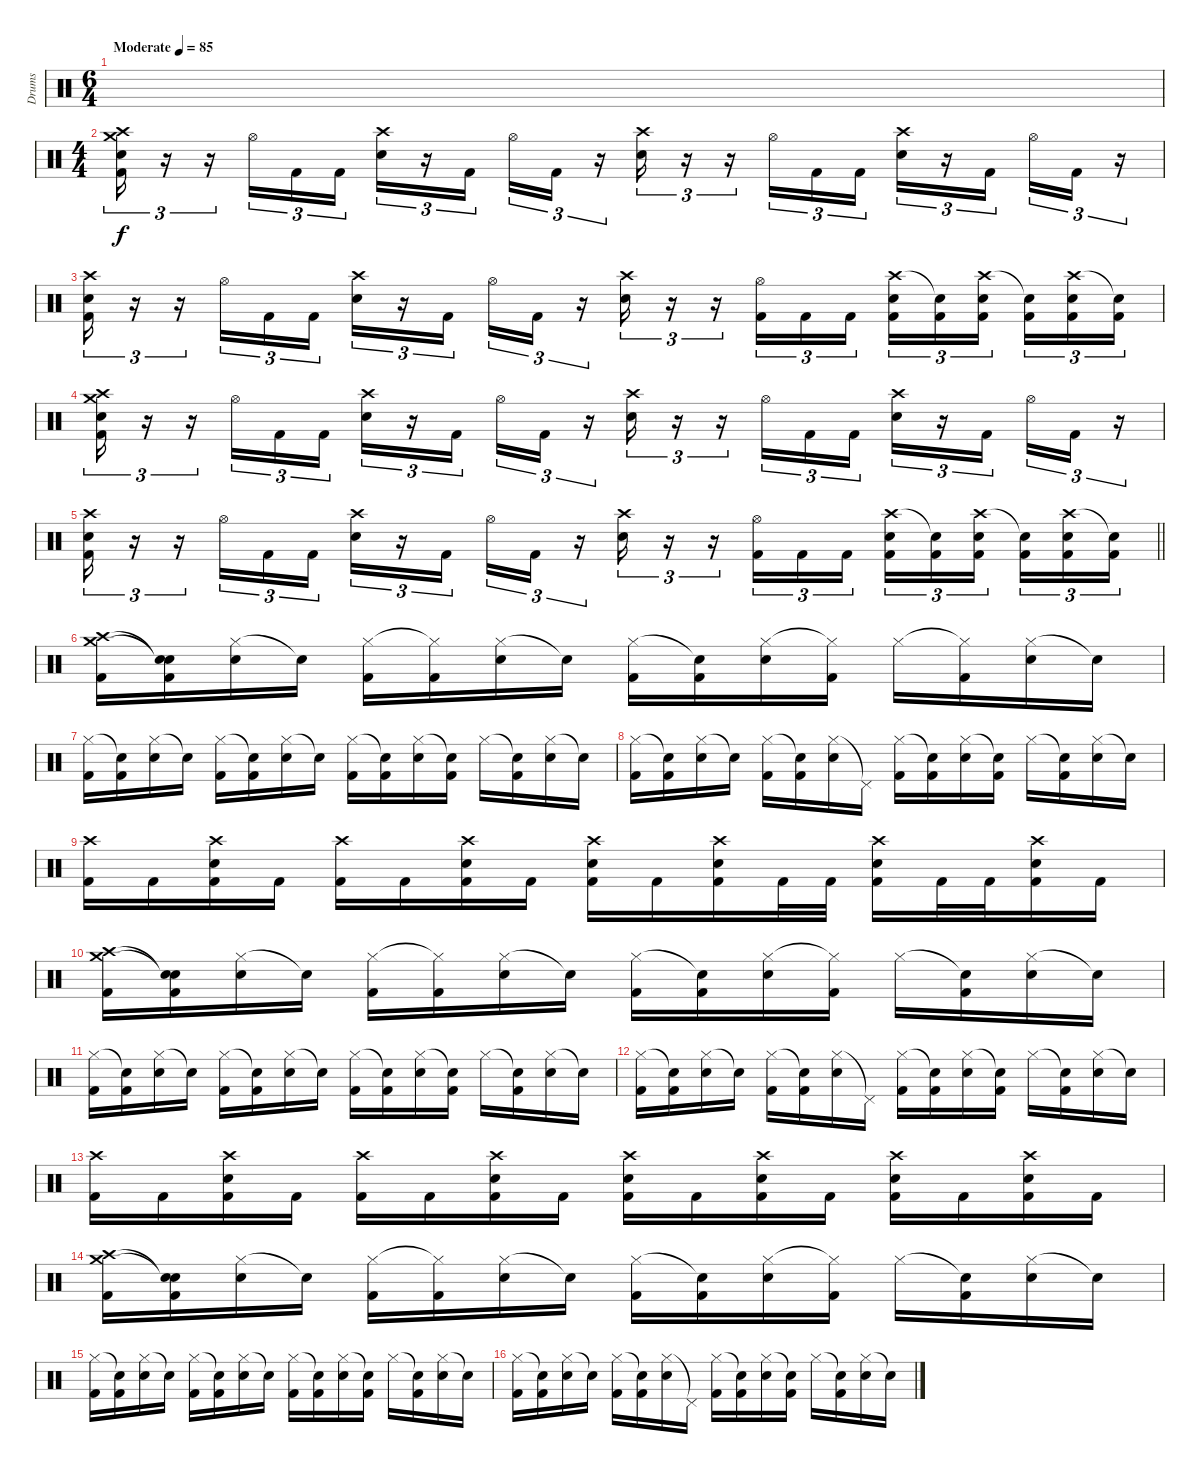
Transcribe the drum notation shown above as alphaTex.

\track ("Drums" "Drums") {instrument percussion}
\staff {score}
\articulation defaults
\ts (6 4)
\tempo (85 "Moderate")
\clef neutral
\ks c
|
\ts (4 4)
("Crash medium (hit)" "Crash high (hit)" "Electric Snare (hit)" "Kick (hit) 2").16{tu (3 2)} r.16{tu (3 2)} r.16{tu (3 2)} "Hi-Hat (open)".16{tu (3 2)} "Kick (hit) 2".16{tu (3 2)} "Kick (hit) 2".16{tu (3 2)} ("Crash high (hit)" "Electric Snare (hit)").16{tu (3 2)} r.16{tu (3 2)} "Kick (hit) 2".16{tu (3 2) beam splitsecondary} "Hi-Hat (open)".16{tu (3 2)} "Kick (hit) 2".16{tu (3 2)} r.16{tu (3 2)} ("Crash high (hit)" "Electric Snare (hit)").16{tu (3 2)} r.16{tu (3 2)} r.16{tu (3 2)} "Hi-Hat (open)".16{tu (3 2)} "Kick (hit) 2".16{tu (3 2)} "Kick (hit) 2".16{tu (3 2)} ("Crash high (hit)" "Electric Snare (hit)").16{tu (3 2)} r.16{tu (3 2)} "Kick (hit) 2".16{tu (3 2) beam splitsecondary} "Hi-Hat (open)".16{tu (3 2)} "Kick (hit) 2".16{tu (3 2)} r.16{tu (3 2)} |
("Crash high (hit)" "Electric Snare (hit)" "Kick (hit) 2").16{tu (3 2)} r.16{tu (3 2)} r.16{tu (3 2)} "Hi-Hat (open)".16{tu (3 2)} "Kick (hit) 2".16{tu (3 2)} "Kick (hit) 2".16{tu (3 2)} ("Crash high (hit)" "Electric Snare (hit)").16{tu (3 2)} r.16{tu (3 2)} "Kick (hit) 2".16{tu (3 2) beam splitsecondary} "Hi-Hat (open)".16{tu (3 2)} "Kick (hit) 2".16{tu (3 2)} r.16{tu (3 2)} ("Crash high (hit)" "Electric Snare (hit)").16{tu (3 2)} r.16{tu (3 2)} r.16{tu (3 2)} ("Hi-Hat (open)" "Kick (hit) 2").16{tu (3 2)} "Kick (hit) 2".16{tu (3 2)} "Kick (hit) 2".16{tu (3 2)} ("Crash high (hit)" "Electric Snare (hit)" "Kick (hit) 2").16{tu (3 2)} ("Snare (hit)"{t} "Kick (hit) 2").16{tu (3 2)} ("Crash high (hit)" "Electric Snare (hit)" "Kick (hit) 2").16{tu (3 2) beam splitsecondary} ("Snare (hit)"{t} "Kick (hit) 2").16{tu (3 2)} ("Crash high (hit)" "Electric Snare (hit)" "Kick (hit) 2").16{tu (3 2)} ("Snare (hit)"{t} "Kick (hit) 2").16{tu (3 2)} |
("Crash medium (hit)" "Crash high (hit)" "Electric Snare (hit)" "Kick (hit) 2").16{tu (3 2)} r.16{tu (3 2)} r.16{tu (3 2)} "Hi-Hat (open)".16{tu (3 2)} "Kick (hit) 2".16{tu (3 2)} "Kick (hit) 2".16{tu (3 2)} ("Crash high (hit)" "Electric Snare (hit)").16{tu (3 2)} r.16{tu (3 2)} "Kick (hit) 2".16{tu (3 2) beam splitsecondary} "Hi-Hat (open)".16{tu (3 2)} "Kick (hit) 2".16{tu (3 2)} r.16{tu (3 2)} ("Crash high (hit)" "Electric Snare (hit)").16{tu (3 2)} r.16{tu (3 2)} r.16{tu (3 2)} "Hi-Hat (open)".16{tu (3 2)} "Kick (hit) 2".16{tu (3 2)} "Kick (hit) 2".16{tu (3 2)} ("Crash high (hit)" "Electric Snare (hit)").16{tu (3 2)} r.16{tu (3 2)} "Kick (hit) 2".16{tu (3 2) beam splitsecondary} "Hi-Hat (open)".16{tu (3 2)} "Kick (hit) 2".16{tu (3 2)} r.16{tu (3 2)} |
\barLineRight lightlight
("Crash high (hit)" "Electric Snare (hit)" "Kick (hit) 2").16{tu (3 2)} r.16{tu (3 2)} r.16{tu (3 2)} "Hi-Hat (open)".16{tu (3 2)} "Kick (hit) 2".16{tu (3 2)} "Kick (hit) 2".16{tu (3 2)} ("Crash high (hit)" "Electric Snare (hit)").16{tu (3 2)} r.16{tu (3 2)} "Kick (hit) 2".16{tu (3 2) beam splitsecondary} "Hi-Hat (open)".16{tu (3 2)} "Kick (hit) 2".16{tu (3 2)} r.16{tu (3 2)} ("Crash high (hit)" "Electric Snare (hit)").16{tu (3 2)} r.16{tu (3 2)} r.16{tu (3 2)} ("Hi-Hat (open)" "Kick (hit) 2").16{tu (3 2)} "Kick (hit) 2".16{tu (3 2)} "Kick (hit) 2".16{tu (3 2)} ("Crash high (hit)" "Electric Snare (hit)" "Kick (hit) 2").16{tu (3 2)} ("Snare (hit)"{t} "Kick (hit) 2").16{tu (3 2)} ("Crash high (hit)" "Electric Snare (hit)" "Kick (hit) 2").16{tu (3 2) beam splitsecondary} ("Snare (hit)"{t} "Kick (hit) 2").16{tu (3 2)} ("Crash high (hit)" "Electric Snare (hit)" "Kick (hit) 2").16{tu (3 2)} ("Snare (hit)"{t} "Kick (hit) 2").16{tu (3 2)} |
("Crash medium (hit)" "Crash high (hit)" "Kick (hit) 2").16 ("Snare (hit)"{t} "Snare (hit)"{t} "Kick (hit) 2").16 ("Hi-Hat (closed)" "Electric Snare (hit)").16 "Snare (hit)"{t}.16 ("Hi-Hat (closed)" "Kick (hit) 2").16 ("Hi-Hat (closed)"{t} "Kick (hit) 2").16 ("Hi-Hat (closed)" "Electric Snare (hit)").16 "Snare (hit)"{t}.16 ("Hi-Hat (closed)" "Kick (hit) 2").16 ("Snare (hit)"{t} "Kick (hit) 2").16 ("Hi-Hat (closed)" "Electric Snare (hit)").16 ("Hi-Hat (closed)"{t} "Kick (hit) 2").16 "Hi-Hat (closed)".16 ("Hi-Hat (closed)"{t} "Kick (hit) 2").16 ("Hi-Hat (closed)" "Electric Snare (hit)").16 "Snare (hit)"{t}.16 |
("Hi-Hat (closed)" "Kick (hit) 2").16 ("Snare (hit)"{t} "Kick (hit) 2").16 ("Hi-Hat (closed)" "Electric Snare (hit)").16 "Snare (hit)"{t}.16 ("Hi-Hat (closed)" "Kick (hit) 2").16 ("Snare (hit)"{t} "Kick (hit) 2").16 ("Hi-Hat (closed)" "Electric Snare (hit)").16 "Snare (hit)"{t}.16 ("Hi-Hat (closed)" "Kick (hit) 2").16 ("Snare (hit)"{t} "Kick (hit) 2").16 ("Hi-Hat (closed)" "Electric Snare (hit)").16 ("Snare (hit)"{t} "Kick (hit) 2").16 "Hi-Hat (closed)".16 ("Snare (hit)"{t} "Kick (hit) 2").16 ("Hi-Hat (closed)" "Electric Snare (hit)").16 "Snare (hit)"{t}.16 |
("Hi-Hat (closed)" "Kick (hit) 2").16 ("Snare (hit)"{t} "Kick (hit) 2").16 ("Hi-Hat (closed)" "Electric Snare (hit)").16 "Snare (hit)"{t}.16 ("Hi-Hat (closed)" "Kick (hit) 2").16 ("Snare (hit)"{t} "Kick (hit) 2").16 ("Hi-Hat (closed)" "Electric Snare (hit)").16 "Pedal Hi-Hat (hit)"{t}.16 ("Hi-Hat (closed)" "Kick (hit) 2").16 ("Snare (hit)"{t} "Kick (hit) 2").16 ("Hi-Hat (closed)" "Electric Snare (hit)").16 ("Snare (hit)"{t} "Kick (hit) 2").16 "Hi-Hat (closed)".16 ("Snare (hit)"{t} "Kick (hit) 2").16 ("Hi-Hat (closed)" "Electric Snare (hit)").16 "Snare (hit)"{t}.16 |
("Crash high (hit)" "Kick (hit) 2").16 "Kick (hit) 2".16 ("Crash high (hit)" "Electric Snare (hit)" "Kick (hit) 2").16 "Kick (hit) 2".16 ("Crash high (hit)" "Kick (hit) 2").16 "Kick (hit) 2".16 ("Crash high (hit)" "Electric Snare (hit)" "Kick (hit) 2").16 "Kick (hit) 2".16 ("Crash high (hit)" "Electric Snare (hit)" "Kick (hit) 2").16 "Kick (hit) 2".16 ("Crash high (hit)" "Electric Snare (hit)" "Kick (hit) 2").16 "Kick (hit) 2".32 "Kick (hit) 2".32 ("Crash high (hit)" "Electric Snare (hit)" "Kick (hit) 2").16 "Kick (hit) 2".32 "Kick (hit) 2".32 ("Crash high (hit)" "Electric Snare (hit)" "Kick (hit) 2").16 "Kick (hit) 2".16 |
("Crash medium (hit)" "Crash high (hit)" "Kick (hit) 2").16 ("Snare (hit)"{t} "Snare (hit)"{t} "Kick (hit) 2").16 ("Hi-Hat (closed)" "Electric Snare (hit)").16 "Snare (hit)"{t}.16 ("Hi-Hat (closed)" "Kick (hit) 2").16 ("Hi-Hat (closed)"{t} "Kick (hit) 2").16 ("Hi-Hat (closed)" "Electric Snare (hit)").16 "Snare (hit)"{t}.16 ("Hi-Hat (closed)" "Kick (hit) 2").16 ("Snare (hit)"{t} "Kick (hit) 2").16 ("Hi-Hat (closed)" "Electric Snare (hit)").16 ("Hi-Hat (closed)"{t} "Kick (hit) 2").16 "Hi-Hat (closed)".16 ("Snare (hit)"{t} "Kick (hit) 2").16 ("Hi-Hat (closed)" "Electric Snare (hit)").16 "Snare (hit)"{t}.16 |
("Hi-Hat (closed)" "Kick (hit) 2").16 ("Snare (hit)"{t} "Kick (hit) 2").16 ("Hi-Hat (closed)" "Electric Snare (hit)").16 "Snare (hit)"{t}.16 ("Hi-Hat (closed)" "Kick (hit) 2").16 ("Snare (hit)"{t} "Kick (hit) 2").16 ("Hi-Hat (closed)" "Electric Snare (hit)").16 "Snare (hit)"{t}.16 ("Hi-Hat (closed)" "Kick (hit) 2").16 ("Snare (hit)"{t} "Kick (hit) 2").16 ("Hi-Hat (closed)" "Electric Snare (hit)").16 ("Snare (hit)"{t} "Kick (hit) 2").16 "Hi-Hat (closed)".16 ("Snare (hit)"{t} "Kick (hit) 2").16 ("Hi-Hat (closed)" "Electric Snare (hit)").16 "Snare (hit)"{t}.16 |
("Hi-Hat (closed)" "Kick (hit) 2").16 ("Snare (hit)"{t} "Kick (hit) 2").16 ("Hi-Hat (closed)" "Electric Snare (hit)").16 "Snare (hit)"{t}.16 ("Hi-Hat (closed)" "Kick (hit) 2").16 ("Snare (hit)"{t} "Kick (hit) 2").16 ("Hi-Hat (closed)" "Electric Snare (hit)").16 "Pedal Hi-Hat (hit)"{t}.16 ("Hi-Hat (closed)" "Kick (hit) 2").16 ("Snare (hit)"{t} "Kick (hit) 2").16 ("Hi-Hat (closed)" "Electric Snare (hit)").16 ("Snare (hit)"{t} "Kick (hit) 2").16 "Hi-Hat (closed)".16 ("Snare (hit)"{t} "Kick (hit) 2").16 ("Hi-Hat (closed)" "Electric Snare (hit)").16 "Snare (hit)"{t}.16 |
("Crash high (hit)" "Kick (hit) 2").16 "Kick (hit) 2".16 ("Crash high (hit)" "Electric Snare (hit)" "Kick (hit) 2").16 "Kick (hit) 2".16 ("Crash high (hit)" "Kick (hit) 2").16 "Kick (hit) 2".16 ("Crash high (hit)" "Electric Snare (hit)" "Kick (hit) 2").16 "Kick (hit) 2".16 ("Crash high (hit)" "Electric Snare (hit)" "Kick (hit) 2").16 "Kick (hit) 2".16 ("Crash high (hit)" "Electric Snare (hit)" "Kick (hit) 2").16 "Kick (hit) 2".16 ("Crash high (hit)" "Electric Snare (hit)" "Kick (hit) 2").16 "Kick (hit) 2".16 ("Crash high (hit)" "Electric Snare (hit)" "Kick (hit) 2").16 "Kick (hit) 2".16 |
("Crash medium (hit)" "Crash high (hit)" "Kick (hit) 2").16 ("Snare (hit)"{t} "Snare (hit)"{t} "Kick (hit) 2").16 ("Hi-Hat (closed)" "Electric Snare (hit)").16 "Snare (hit)"{t}.16 ("Hi-Hat (closed)" "Kick (hit) 2").16 ("Hi-Hat (closed)"{t} "Kick (hit) 2").16 ("Hi-Hat (closed)" "Electric Snare (hit)").16 "Snare (hit)"{t}.16 ("Hi-Hat (closed)" "Kick (hit) 2").16 ("Snare (hit)"{t} "Kick (hit) 2").16 ("Hi-Hat (closed)" "Electric Snare (hit)").16 ("Hi-Hat (closed)"{t} "Kick (hit) 2").16 "Hi-Hat (closed)".16 ("Snare (hit)"{t} "Kick (hit) 2").16 ("Hi-Hat (closed)" "Electric Snare (hit)").16 "Snare (hit)"{t}.16 |
("Hi-Hat (closed)" "Kick (hit) 2").16 ("Snare (hit)"{t} "Kick (hit) 2").16 ("Hi-Hat (closed)" "Electric Snare (hit)").16 "Snare (hit)"{t}.16 ("Hi-Hat (closed)" "Kick (hit) 2").16 ("Snare (hit)"{t} "Kick (hit) 2").16 ("Hi-Hat (closed)" "Electric Snare (hit)").16 "Snare (hit)"{t}.16 ("Hi-Hat (closed)" "Kick (hit) 2").16 ("Snare (hit)"{t} "Kick (hit) 2").16 ("Hi-Hat (closed)" "Electric Snare (hit)").16 ("Snare (hit)"{t} "Kick (hit) 2").16 "Hi-Hat (closed)".16 ("Snare (hit)"{t} "Kick (hit) 2").16 ("Hi-Hat (closed)" "Electric Snare (hit)").16 "Snare (hit)"{t}.16 |
("Hi-Hat (closed)" "Kick (hit) 2").16 ("Snare (hit)"{t} "Kick (hit) 2").16 ("Hi-Hat (closed)" "Electric Snare (hit)").16 "Snare (hit)"{t}.16 ("Hi-Hat (closed)" "Kick (hit) 2").16 ("Snare (hit)"{t} "Kick (hit) 2").16 ("Hi-Hat (closed)" "Electric Snare (hit)").16 "Pedal Hi-Hat (hit)"{t}.16 ("Hi-Hat (closed)" "Kick (hit) 2").16 ("Snare (hit)"{t} "Kick (hit) 2").16 ("Hi-Hat (closed)" "Electric Snare (hit)").16 ("Snare (hit)"{t} "Kick (hit) 2").16 "Hi-Hat (closed)".16 ("Snare (hit)"{t} "Kick (hit) 2").16 ("Hi-Hat (closed)" "Electric Snare (hit)").16 "Snare (hit)"{t}.16
